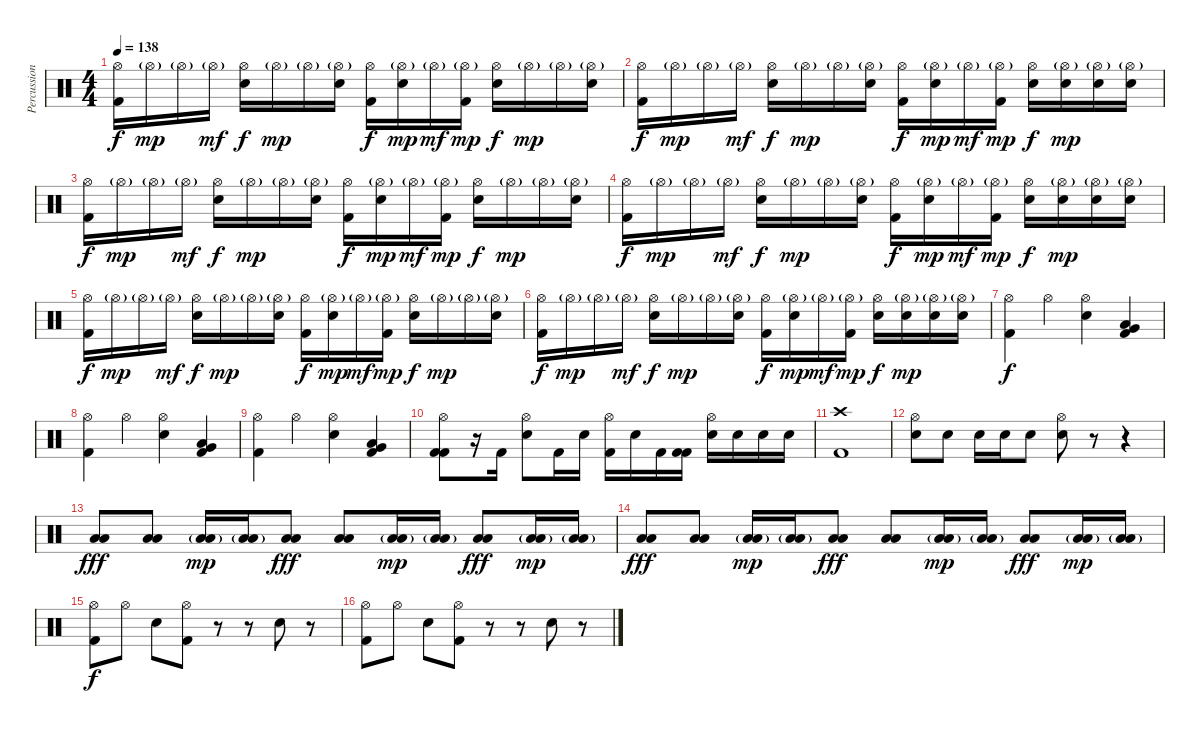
\track ("Percussion" "Percussion") {instrument percussion}
\staff {score}
\articulation defaults
\ts (4 4)
\tempo 138
\clef neutral
\ks c
("Hi-Hat (open)" "Kick (hit) 2").16{dy f} "Hi-Hat (open)"{g}.16{dy mp} "Hi-Hat (open)"{g}.16 "Hi-Hat (open)"{g}.16{dy mf} ("Hi-Hat (open)" "Snare (hit) 2").16{dy f} "Hi-Hat (open)"{g}.16{dy mp} "Hi-Hat (open)"{g}.16 ("Hi-Hat (open)"{g} "Snare (hit) 2").16 ("Hi-Hat (open)" "Kick (hit) 2").16{dy f} ("Hi-Hat (open)"{g} "Snare (hit) 2").16{dy mp} "Hi-Hat (open)"{g}.16{dy mf} ("Hi-Hat (open)"{g} "Kick (hit) 2").16{dy mp} ("Hi-Hat (open)" "Snare (hit) 2").16{dy f} "Hi-Hat (open)"{g}.16{dy mp} "Hi-Hat (open)"{g}.16 ("Hi-Hat (open)"{g} "Snare (hit) 2").16 |
("Hi-Hat (open)" "Kick (hit) 2").16{dy f} "Hi-Hat (open)"{g}.16{dy mp} "Hi-Hat (open)"{g}.16 "Hi-Hat (open)"{g}.16{dy mf} ("Hi-Hat (open)" "Snare (hit) 2").16{dy f} "Hi-Hat (open)"{g}.16{dy mp} "Hi-Hat (open)"{g}.16 ("Hi-Hat (open)"{g} "Snare (hit) 2").16 ("Hi-Hat (open)" "Kick (hit) 2").16{dy f} ("Hi-Hat (open)"{g} "Snare (hit) 2").16{dy mp} "Hi-Hat (open)"{g}.16{dy mf} ("Hi-Hat (open)"{g} "Kick (hit) 2").16{dy mp} ("Hi-Hat (open)" "Snare (hit) 2").16{dy f} ("Hi-Hat (open)"{g} "Snare (hit) 2").16{dy mp} ("Hi-Hat (open)"{g} "Snare (hit) 2").16 ("Hi-Hat (open)"{g} "Snare (hit) 2").16 |
("Hi-Hat (open)" "Kick (hit) 2").16{dy f} "Hi-Hat (open)"{g}.16{dy mp} "Hi-Hat (open)"{g}.16 "Hi-Hat (open)"{g}.16{dy mf} ("Hi-Hat (open)" "Snare (hit) 2").16{dy f} "Hi-Hat (open)"{g}.16{dy mp} "Hi-Hat (open)"{g}.16 ("Hi-Hat (open)"{g} "Snare (hit) 2").16 ("Hi-Hat (open)" "Kick (hit) 2").16{dy f} ("Hi-Hat (open)"{g} "Snare (hit) 2").16{dy mp} "Hi-Hat (open)"{g}.16{dy mf} ("Hi-Hat (open)"{g} "Kick (hit) 2").16{dy mp} ("Hi-Hat (open)" "Snare (hit) 2").16{dy f} "Hi-Hat (open)"{g}.16{dy mp} "Hi-Hat (open)"{g}.16 ("Hi-Hat (open)"{g} "Snare (hit) 2").16 |
("Hi-Hat (open)" "Kick (hit) 2").16{dy f} "Hi-Hat (open)"{g}.16{dy mp} "Hi-Hat (open)"{g}.16 "Hi-Hat (open)"{g}.16{dy mf} ("Hi-Hat (open)" "Snare (hit) 2").16{dy f} "Hi-Hat (open)"{g}.16{dy mp} "Hi-Hat (open)"{g}.16 ("Hi-Hat (open)"{g} "Snare (hit) 2").16 ("Hi-Hat (open)" "Kick (hit) 2").16{dy f} ("Hi-Hat (open)"{g} "Snare (hit) 2").16{dy mp} "Hi-Hat (open)"{g}.16{dy mf} ("Hi-Hat (open)"{g} "Kick (hit) 2").16{dy mp} ("Hi-Hat (open)" "Snare (hit) 2").16{dy f} ("Hi-Hat (open)"{g} "Snare (hit) 2").16{dy mp} ("Hi-Hat (open)"{g} "Snare (hit) 2").16 ("Hi-Hat (open)"{g} "Snare (hit) 2").16 |
("Hi-Hat (open)" "Kick (hit) 2").16{dy f} "Hi-Hat (open)"{g}.16{dy mp} "Hi-Hat (open)"{g}.16 "Hi-Hat (open)"{g}.16{dy mf} ("Hi-Hat (open)" "Snare (hit) 2").16{dy f} "Hi-Hat (open)"{g}.16{dy mp} "Hi-Hat (open)"{g}.16 ("Hi-Hat (open)"{g} "Snare (hit) 2").16 ("Hi-Hat (open)" "Kick (hit) 2").16{dy f} ("Hi-Hat (open)"{g} "Snare (hit) 2").16{dy mp} "Hi-Hat (open)"{g}.16{dy mf} ("Hi-Hat (open)"{g} "Kick (hit) 2").16{dy mp} ("Hi-Hat (open)" "Snare (hit) 2").16{dy f} "Hi-Hat (open)"{g}.16{dy mp} "Hi-Hat (open)"{g}.16 ("Hi-Hat (open)"{g} "Snare (hit) 2").16 |
("Hi-Hat (open)" "Kick (hit) 2").16{dy f} "Hi-Hat (open)"{g}.16{dy mp} "Hi-Hat (open)"{g}.16 "Hi-Hat (open)"{g}.16{dy mf} ("Hi-Hat (open)" "Snare (hit) 2").16{dy f} "Hi-Hat (open)"{g}.16{dy mp} "Hi-Hat (open)"{g}.16 ("Hi-Hat (open)"{g} "Snare (hit) 2").16 ("Hi-Hat (open)" "Kick (hit) 2").16{dy f} ("Hi-Hat (open)"{g} "Snare (hit) 2").16{dy mp} "Hi-Hat (open)"{g}.16{dy mf} ("Hi-Hat (open)"{g} "Kick (hit) 2").16{dy mp} ("Hi-Hat (open)" "Snare (hit) 2").16{dy f} ("Hi-Hat (open)"{g} "Snare (hit) 2").16{dy mp} ("Hi-Hat (open)"{g} "Snare (hit) 2").16 ("Hi-Hat (open)"{g} "Snare (hit) 2").16 |
("Hi-Hat (open)" "Kick (hit) 2").4{dy f} "Hi-Hat (open)".4 ("Hi-Hat (open)" "Snare (hit) 2").4 ("Very Low Tom (hit)" "Low Floor Tom (hit)" "Kick (hit) 2").4 |
("Hi-Hat (open)" "Kick (hit) 2").4 "Hi-Hat (open)".4 ("Hi-Hat (open)" "Snare (hit) 2").4 ("Very Low Tom (hit)" "Low Floor Tom (hit)" "Kick (hit) 2").4 |
("Hi-Hat (open)" "Kick (hit) 2").4 "Hi-Hat (open)".4 ("Hi-Hat (open)" "Snare (hit) 2").4 ("Very Low Tom (hit)" "Low Floor Tom (hit)" "Kick (hit) 2").4 |
("Hi-Hat (open)" "Kick (hit) 2" "Kick (hit) 2").8 r.16 "Kick (hit) 2".16 ("Hi-Hat (open)" "Snare (hit) 2").8 "Kick (hit) 2".16 "Snare (hit) 2".16 ("Hi-Hat (open)" "Kick (hit) 2").16 "Snare (hit) 2".16 "Kick (hit) 2".16 ("Kick (hit) 2" "Kick (hit) 2").16 ("Hi-Hat (open)" "Snare (hit) 2").16 "Snare (hit) 2".16 "Snare (hit) 2".16 "Snare (hit) 2".16 |
("Crash high (hit)" "Kick (hit) 2").1 |
("Hi-Hat (open)" "Electric Snare (hit)").8 "Electric Snare (hit)".8 "Electric Snare (hit)".16 "Electric Snare (hit)".16 "Electric Snare (hit)".8 ("Hi-Hat (open)" "Electric Snare (hit)").8 r.8 r.4 |
("Low Floor Tom (hit)" "Low Floor Tom (hit)").8{dy fff} ("Low Floor Tom (hit)" "Low Floor Tom (hit)").8 ("Low Floor Tom (hit)"{g} "Low Floor Tom (hit)").16{dy mp} ("Low Floor Tom (hit)"{g} "Low Floor Tom (hit)").16 ("Low Floor Tom (hit)" "Low Floor Tom (hit)").8{dy fff} ("Low Floor Tom (hit)" "Low Floor Tom (hit)").8 ("Low Floor Tom (hit)"{g} "Low Floor Tom (hit)").16{dy mp} ("Low Floor Tom (hit)"{g} "Low Floor Tom (hit)").16 ("Low Floor Tom (hit)" "Low Floor Tom (hit)").8{dy fff} ("Low Floor Tom (hit)"{g} "Low Floor Tom (hit)").16{dy mp} ("Low Floor Tom (hit)"{g} "Low Floor Tom (hit)").16 |
("Low Floor Tom (hit)" "Low Floor Tom (hit)").8{dy fff} ("Low Floor Tom (hit)" "Low Floor Tom (hit)").8 ("Low Floor Tom (hit)"{g} "Low Floor Tom (hit)").16{dy mp} ("Low Floor Tom (hit)"{g} "Low Floor Tom (hit)").16 ("Low Floor Tom (hit)" "Low Floor Tom (hit)").8{dy fff} ("Low Floor Tom (hit)" "Low Floor Tom (hit)").8 ("Low Floor Tom (hit)"{g} "Low Floor Tom (hit)").16{dy mp} ("Low Floor Tom (hit)"{g} "Low Floor Tom (hit)").16 ("Low Floor Tom (hit)" "Low Floor Tom (hit)").8{dy fff} ("Low Floor Tom (hit)"{g} "Low Floor Tom (hit)").16{dy mp} ("Low Floor Tom (hit)"{g} "Low Floor Tom (hit)").16 |
("Hi-Hat (open)" "Kick (hit) 2").8{dy f} "Hi-Hat (open)".8 "Snare (hit) 2".8 ("Hi-Hat (open)" "Kick (hit) 2").8 r.8 r.8 "Snare (hit) 2".8 r.8 |
("Hi-Hat (open)" "Kick (hit) 2").8 "Hi-Hat (open)".8 "Snare (hit) 2".8 ("Hi-Hat (open)" "Kick (hit) 2").8 r.8 r.8 "Snare (hit) 2".8 r.8
